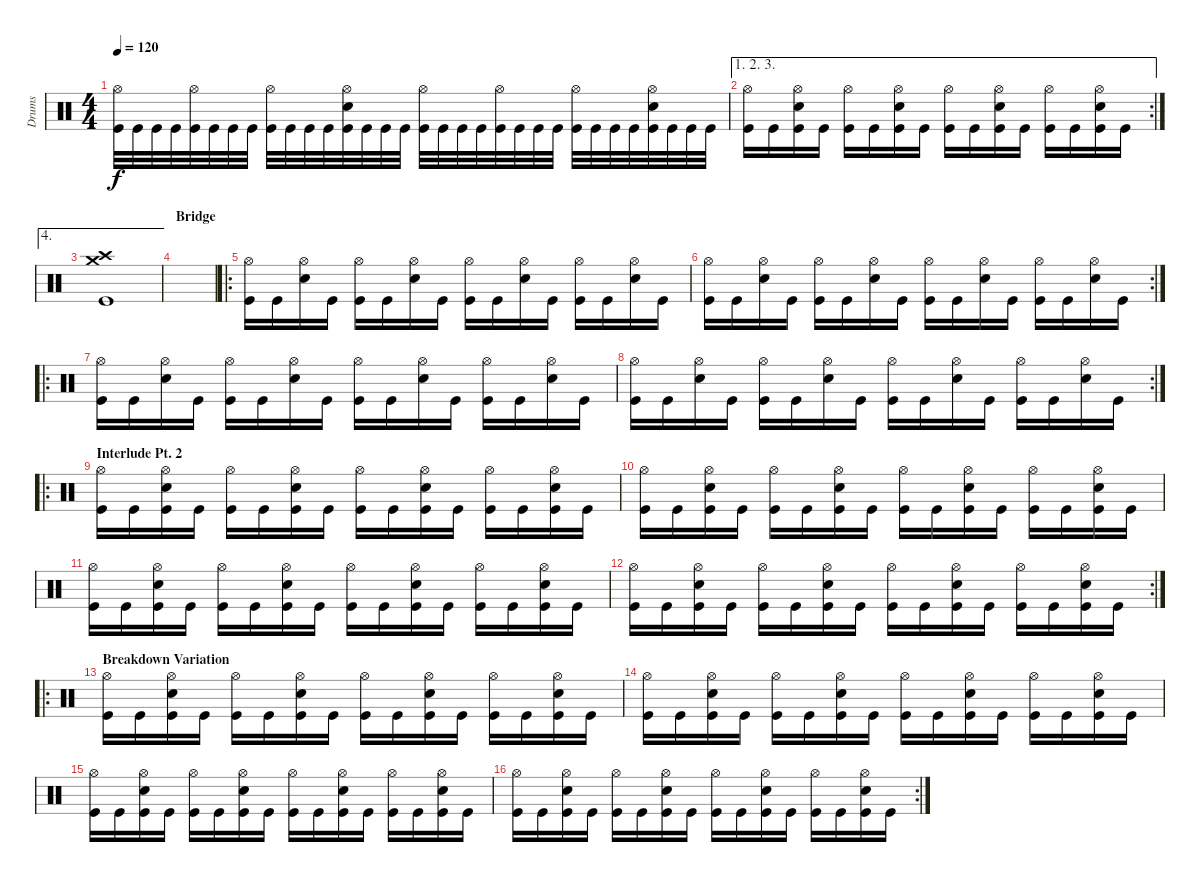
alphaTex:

\track ("Drums" "Drums") {instrument percussion}
\staff {score}
\articulation defaults
\ts (4 4)
\tempo 120
\clef neutral
\ks c
("Hi-Hat (open)" "Kick (hit)").32{dy f} "Kick (hit)".32 "Kick (hit)".32 "Kick (hit)".32 ("Hi-Hat (open)" "Kick (hit)").32 "Kick (hit)".32 "Kick (hit)".32 "Kick (hit)".32 ("Hi-Hat (open)" "Kick (hit)").32 "Kick (hit)".32 "Kick (hit)".32 "Kick (hit)".32 ("Hi-Hat (open)" "Snare (hit) 2" "Kick (hit)").32 "Kick (hit)".32 "Kick (hit)".32 "Kick (hit)".32 ("Hi-Hat (open)" "Kick (hit)").32 "Kick (hit)".32 "Kick (hit)".32 "Kick (hit)".32 ("Hi-Hat (open)" "Kick (hit)").32 "Kick (hit)".32 "Kick (hit)".32 "Kick (hit)".32 ("Hi-Hat (open)" "Kick (hit)").32 "Kick (hit)".32 "Kick (hit)".32 "Kick (hit)".32 ("Hi-Hat (open)" "Snare (hit) 2" "Kick (hit)").32 "Kick (hit)".32 "Kick (hit)".32 "Kick (hit)".32 |
\ae (1 2 3)
\rc 2
("Hi-Hat (open)" "Kick (hit)").16 "Kick (hit)".16 ("Hi-Hat (open)" "Snare (hit) 2" "Kick (hit)").16 "Kick (hit)".16 ("Hi-Hat (open)" "Kick (hit)").16 "Kick (hit)".16 ("Hi-Hat (open)" "Snare (hit) 2" "Kick (hit)").16 "Kick (hit)".16 ("Hi-Hat (open)" "Kick (hit)").16 "Kick (hit)".16 ("Hi-Hat (open)" "Snare (hit) 2" "Kick (hit)").16 "Kick (hit)".16 ("Hi-Hat (open)" "Kick (hit)").16 "Kick (hit)".16 ("Hi-Hat (open)" "Snare (hit) 2" "Kick (hit)").16 "Kick (hit)".16 |
\ae 4
("Crash medium (hit)" "Crash high (hit)" "Kick (hit)").1 |
\section ("" "Bridge")
|
\ro
("Hi-Hat (open)" "Kick (hit)").16 "Kick (hit)".16 ("Hi-Hat (open)" "Snare (hit) 2").16 "Kick (hit)".16 ("Hi-Hat (open)" "Kick (hit)").16 "Kick (hit)".16 ("Hi-Hat (open)" "Snare (hit) 2").16 "Kick (hit)".16 ("Hi-Hat (open)" "Kick (hit)").16 "Kick (hit)".16 ("Hi-Hat (open)" "Snare (hit) 2").16 "Kick (hit)".16 ("Hi-Hat (open)" "Kick (hit)").16 "Kick (hit)".16 ("Hi-Hat (open)" "Snare (hit) 2").16 "Kick (hit)".16 |
\rc 2
("Hi-Hat (open)" "Kick (hit)").16 "Kick (hit)".16 ("Hi-Hat (open)" "Snare (hit) 2").16 "Kick (hit)".16 ("Hi-Hat (open)" "Kick (hit)").16 "Kick (hit)".16 ("Hi-Hat (open)" "Snare (hit) 2").16 "Kick (hit)".16 ("Hi-Hat (open)" "Kick (hit)").16 "Kick (hit)".16 ("Hi-Hat (open)" "Snare (hit) 2").16 "Kick (hit)".16 ("Hi-Hat (open)" "Kick (hit)").16 "Kick (hit)".16 ("Hi-Hat (open)" "Snare (hit) 2").16 "Kick (hit)".16 |
\ro
("Hi-Hat (open)" "Kick (hit)").16 "Kick (hit)".16 ("Hi-Hat (open)" "Snare (hit) 2").16 "Kick (hit)".16 ("Hi-Hat (open)" "Kick (hit)").16 "Kick (hit)".16 ("Hi-Hat (open)" "Snare (hit) 2").16 "Kick (hit)".16 ("Hi-Hat (open)" "Kick (hit)").16 "Kick (hit)".16 ("Hi-Hat (open)" "Snare (hit) 2").16 "Kick (hit)".16 ("Hi-Hat (open)" "Kick (hit)").16 "Kick (hit)".16 ("Hi-Hat (open)" "Snare (hit) 2").16 "Kick (hit)".16 |
\rc 2
("Hi-Hat (open)" "Kick (hit)").16 "Kick (hit)".16 ("Hi-Hat (open)" "Snare (hit) 2").16 "Kick (hit)".16 ("Hi-Hat (open)" "Kick (hit)").16 "Kick (hit)".16 ("Hi-Hat (open)" "Snare (hit) 2").16 "Kick (hit)".16 ("Hi-Hat (open)" "Kick (hit)").16 "Kick (hit)".16 ("Hi-Hat (open)" "Snare (hit) 2").16 "Kick (hit)".16 ("Hi-Hat (open)" "Kick (hit)").16 "Kick (hit)".16 ("Hi-Hat (open)" "Snare (hit) 2").16 "Kick (hit)".16 |
\ro
\section ("" "Interlude Pt. 2")
("Hi-Hat (open)" "Kick (hit)").16 "Kick (hit)".16 ("Hi-Hat (open)" "Snare (hit) 2" "Kick (hit)").16 "Kick (hit)".16 ("Hi-Hat (open)" "Kick (hit)").16 "Kick (hit)".16 ("Hi-Hat (open)" "Snare (hit) 2" "Kick (hit)").16 "Kick (hit)".16 ("Hi-Hat (open)" "Kick (hit)").16 "Kick (hit)".16 ("Hi-Hat (open)" "Snare (hit) 2" "Kick (hit)").16 "Kick (hit)".16 ("Hi-Hat (open)" "Kick (hit)").16 "Kick (hit)".16 ("Hi-Hat (open)" "Snare (hit) 2" "Kick (hit)").16 "Kick (hit)".16 |
("Hi-Hat (open)" "Kick (hit)").16 "Kick (hit)".16 ("Hi-Hat (open)" "Snare (hit) 2" "Kick (hit)").16 "Kick (hit)".16 ("Hi-Hat (open)" "Kick (hit)").16 "Kick (hit)".16 ("Hi-Hat (open)" "Snare (hit) 2" "Kick (hit)").16 "Kick (hit)".16 ("Hi-Hat (open)" "Kick (hit)").16 "Kick (hit)".16 ("Hi-Hat (open)" "Snare (hit) 2" "Kick (hit)").16 "Kick (hit)".16 ("Hi-Hat (open)" "Kick (hit)").16 "Kick (hit)".16 ("Hi-Hat (open)" "Snare (hit) 2" "Kick (hit)").16 "Kick (hit)".16 |
("Hi-Hat (open)" "Kick (hit)").16 "Kick (hit)".16 ("Hi-Hat (open)" "Snare (hit) 2" "Kick (hit)").16 "Kick (hit)".16 ("Hi-Hat (open)" "Kick (hit)").16 "Kick (hit)".16 ("Hi-Hat (open)" "Snare (hit) 2" "Kick (hit)").16 "Kick (hit)".16 ("Hi-Hat (open)" "Kick (hit)").16 "Kick (hit)".16 ("Hi-Hat (open)" "Snare (hit) 2" "Kick (hit)").16 "Kick (hit)".16 ("Hi-Hat (open)" "Kick (hit)").16 "Kick (hit)".16 ("Hi-Hat (open)" "Snare (hit) 2" "Kick (hit)").16 "Kick (hit)".16 |
\rc 2
("Hi-Hat (open)" "Kick (hit)").16 "Kick (hit)".16 ("Hi-Hat (open)" "Snare (hit) 2" "Kick (hit)").16 "Kick (hit)".16 ("Hi-Hat (open)" "Kick (hit)").16 "Kick (hit)".16 ("Hi-Hat (open)" "Snare (hit) 2" "Kick (hit)").16 "Kick (hit)".16 ("Hi-Hat (open)" "Kick (hit)").16 "Kick (hit)".16 ("Hi-Hat (open)" "Snare (hit) 2" "Kick (hit)").16 "Kick (hit)".16 ("Hi-Hat (open)" "Kick (hit)").16 "Kick (hit)".16 ("Hi-Hat (open)" "Snare (hit) 2" "Kick (hit)").16 "Kick (hit)".16 |
\ro
\section ("" "Breakdown Variation")
("Hi-Hat (open)" "Kick (hit)").16 "Kick (hit)".16 ("Hi-Hat (open)" "Snare (hit) 2" "Kick (hit)").16 "Kick (hit)".16 ("Hi-Hat (open)" "Kick (hit)").16 "Kick (hit)".16 ("Hi-Hat (open)" "Snare (hit) 2" "Kick (hit)").16 "Kick (hit)".16 ("Hi-Hat (open)" "Kick (hit)").16 "Kick (hit)".16 ("Hi-Hat (open)" "Snare (hit) 2" "Kick (hit)").16 "Kick (hit)".16 ("Hi-Hat (open)" "Kick (hit)").16 "Kick (hit)".16 ("Hi-Hat (open)" "Snare (hit) 2" "Kick (hit)").16 "Kick (hit)".16 |
("Hi-Hat (open)" "Kick (hit)").16 "Kick (hit)".16 ("Hi-Hat (open)" "Snare (hit) 2" "Kick (hit)").16 "Kick (hit)".16 ("Hi-Hat (open)" "Kick (hit)").16 "Kick (hit)".16 ("Hi-Hat (open)" "Snare (hit) 2" "Kick (hit)").16 "Kick (hit)".16 ("Hi-Hat (open)" "Kick (hit)").16 "Kick (hit)".16 ("Hi-Hat (open)" "Snare (hit) 2" "Kick (hit)").16 "Kick (hit)".16 ("Hi-Hat (open)" "Kick (hit)").16 "Kick (hit)".16 ("Hi-Hat (open)" "Snare (hit) 2" "Kick (hit)").16 "Kick (hit)".16 |
("Hi-Hat (open)" "Kick (hit)").16 "Kick (hit)".16 ("Hi-Hat (open)" "Snare (hit) 2" "Kick (hit)").16 "Kick (hit)".16 ("Hi-Hat (open)" "Kick (hit)").16 "Kick (hit)".16 ("Hi-Hat (open)" "Snare (hit) 2" "Kick (hit)").16 "Kick (hit)".16 ("Hi-Hat (open)" "Kick (hit)").16 "Kick (hit)".16 ("Hi-Hat (open)" "Snare (hit) 2" "Kick (hit)").16 "Kick (hit)".16 ("Hi-Hat (open)" "Kick (hit)").16 "Kick (hit)".16 ("Hi-Hat (open)" "Snare (hit) 2" "Kick (hit)").16 "Kick (hit)".16 |
\rc 2
("Hi-Hat (open)" "Kick (hit)").16 "Kick (hit)".16 ("Hi-Hat (open)" "Snare (hit) 2" "Kick (hit)").16 "Kick (hit)".16 ("Hi-Hat (open)" "Kick (hit)").16 "Kick (hit)".16 ("Hi-Hat (open)" "Snare (hit) 2" "Kick (hit)").16 "Kick (hit)".16 ("Hi-Hat (open)" "Kick (hit)").16 "Kick (hit)".16 ("Hi-Hat (open)" "Snare (hit) 2" "Kick (hit)").16 "Kick (hit)".16 ("Hi-Hat (open)" "Kick (hit)").16 "Kick (hit)".16 ("Hi-Hat (open)" "Snare (hit) 2" "Kick (hit)").16 "Kick (hit)".16
